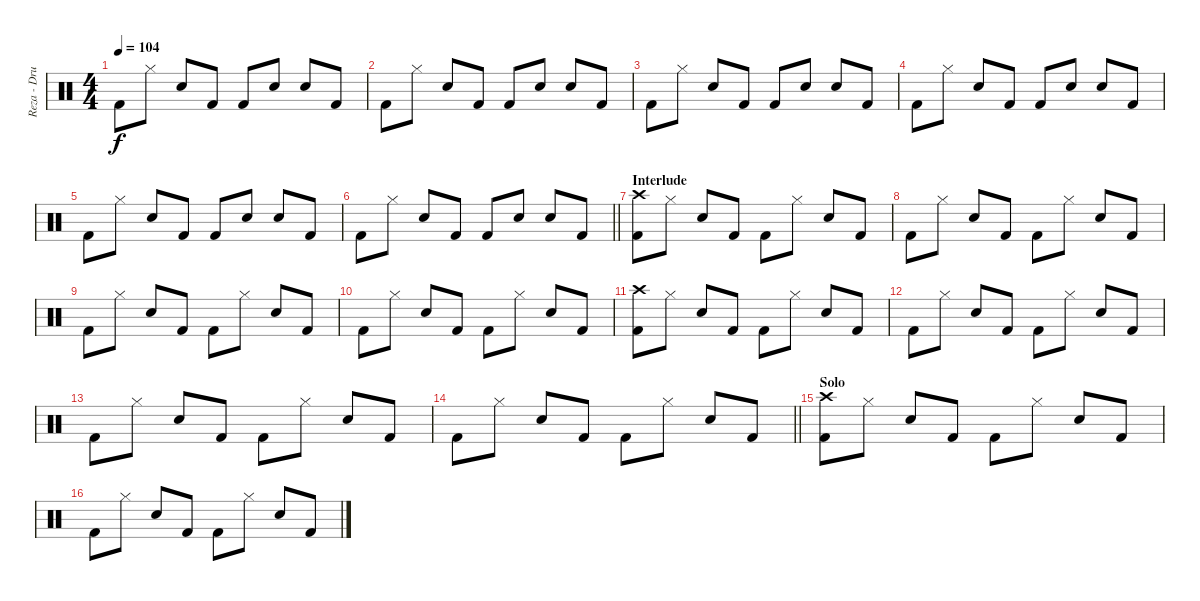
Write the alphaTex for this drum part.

\track ("Reza - Drums" "Reza - Dru") {instrument percussion}
\staff {score}
\articulation defaults
\ts (4 4)
\tempo 104
\clef neutral
\ks c "Kick (hit) 2".8{dy f} "Hi-Hat (closed)".8 "Snare (hit) 2".8 "Kick (hit) 2".8 "Kick (hit) 2".8 "Snare (hit) 2".8 "Snare (hit) 2".8 "Kick (hit) 2".8
|
"Kick (hit) 2".8 "Hi-Hat (closed)".8 "Snare (hit) 2".8 "Kick (hit) 2".8 "Kick (hit) 2".8 "Snare (hit) 2".8 "Snare (hit) 2".8 "Kick (hit) 2".8 |
"Kick (hit) 2".8 "Hi-Hat (closed)".8 "Snare (hit) 2".8 "Kick (hit) 2".8 "Kick (hit) 2".8 "Snare (hit) 2".8 "Snare (hit) 2".8 "Kick (hit) 2".8 |
"Kick (hit) 2".8 "Hi-Hat (closed)".8 "Snare (hit) 2".8 "Kick (hit) 2".8 "Kick (hit) 2".8 "Snare (hit) 2".8 "Snare (hit) 2".8 "Kick (hit) 2".8 |
"Kick (hit) 2".8 "Hi-Hat (closed)".8 "Snare (hit) 2".8 "Kick (hit) 2".8 "Kick (hit) 2".8 "Snare (hit) 2".8 "Snare (hit) 2".8 "Kick (hit) 2".8 |
\barLineRight lightlight "Kick (hit) 2".8 "Hi-Hat (closed)".8 "Snare (hit) 2".8 "Kick (hit) 2".8 "Kick (hit) 2".8 "Snare (hit) 2".8 "Snare (hit) 2".8 "Kick (hit) 2".8
|
\section ("" "Interlude")
("Kick (hit) 2" "Crash high (hit)").8 "Hi-Hat (closed)".8 "Snare (hit) 2".8 "Kick (hit) 2".8 "Kick (hit) 2".8 "Hi-Hat (closed)".8 "Snare (hit) 2".8 "Kick (hit) 2".8 |
"Kick (hit) 2".8 "Hi-Hat (closed)".8 "Snare (hit) 2".8 "Kick (hit) 2".8 "Kick (hit) 2".8 "Hi-Hat (closed)".8 "Snare (hit) 2".8 "Kick (hit) 2".8 |
"Kick (hit) 2".8 "Hi-Hat (closed)".8 "Snare (hit) 2".8 "Kick (hit) 2".8 "Kick (hit) 2".8 "Hi-Hat (closed)".8 "Snare (hit) 2".8 "Kick (hit) 2".8 |
"Kick (hit) 2".8 "Hi-Hat (closed)".8 "Snare (hit) 2".8 "Kick (hit) 2".8 "Kick (hit) 2".8 "Hi-Hat (closed)".8 "Snare (hit) 2".8 "Kick (hit) 2".8 |
("Kick (hit) 2" "Crash high (hit)").8 "Hi-Hat (closed)".8 "Snare (hit) 2".8 "Kick (hit) 2".8 "Kick (hit) 2".8 "Hi-Hat (closed)".8 "Snare (hit) 2".8 "Kick (hit) 2".8 |
"Kick (hit) 2".8 "Hi-Hat (closed)".8 "Snare (hit) 2".8 "Kick (hit) 2".8 "Kick (hit) 2".8 "Hi-Hat (closed)".8 "Snare (hit) 2".8 "Kick (hit) 2".8 |
"Kick (hit) 2".8 "Hi-Hat (closed)".8 "Snare (hit) 2".8 "Kick (hit) 2".8 "Kick (hit) 2".8 "Hi-Hat (closed)".8 "Snare (hit) 2".8 "Kick (hit) 2".8 |
\barLineRight lightlight "Kick (hit) 2".8 "Hi-Hat (closed)".8 "Snare (hit) 2".8 "Kick (hit) 2".8 "Kick (hit) 2".8 "Hi-Hat (closed)".8 "Snare (hit) 2".8 "Kick (hit) 2".8
|
\section ("" "Solo")
("Kick (hit) 2" "Crash high (hit)").8 "Hi-Hat (closed)".8 "Snare (hit) 2".8 "Kick (hit) 2".8 "Kick (hit) 2".8 "Hi-Hat (closed)".8 "Snare (hit) 2".8 "Kick (hit) 2".8 |
"Kick (hit) 2".8 "Hi-Hat (closed)".8 "Snare (hit) 2".8 "Kick (hit) 2".8 "Kick (hit) 2".8 "Hi-Hat (closed)".8 "Snare (hit) 2".8 "Kick (hit) 2".8
